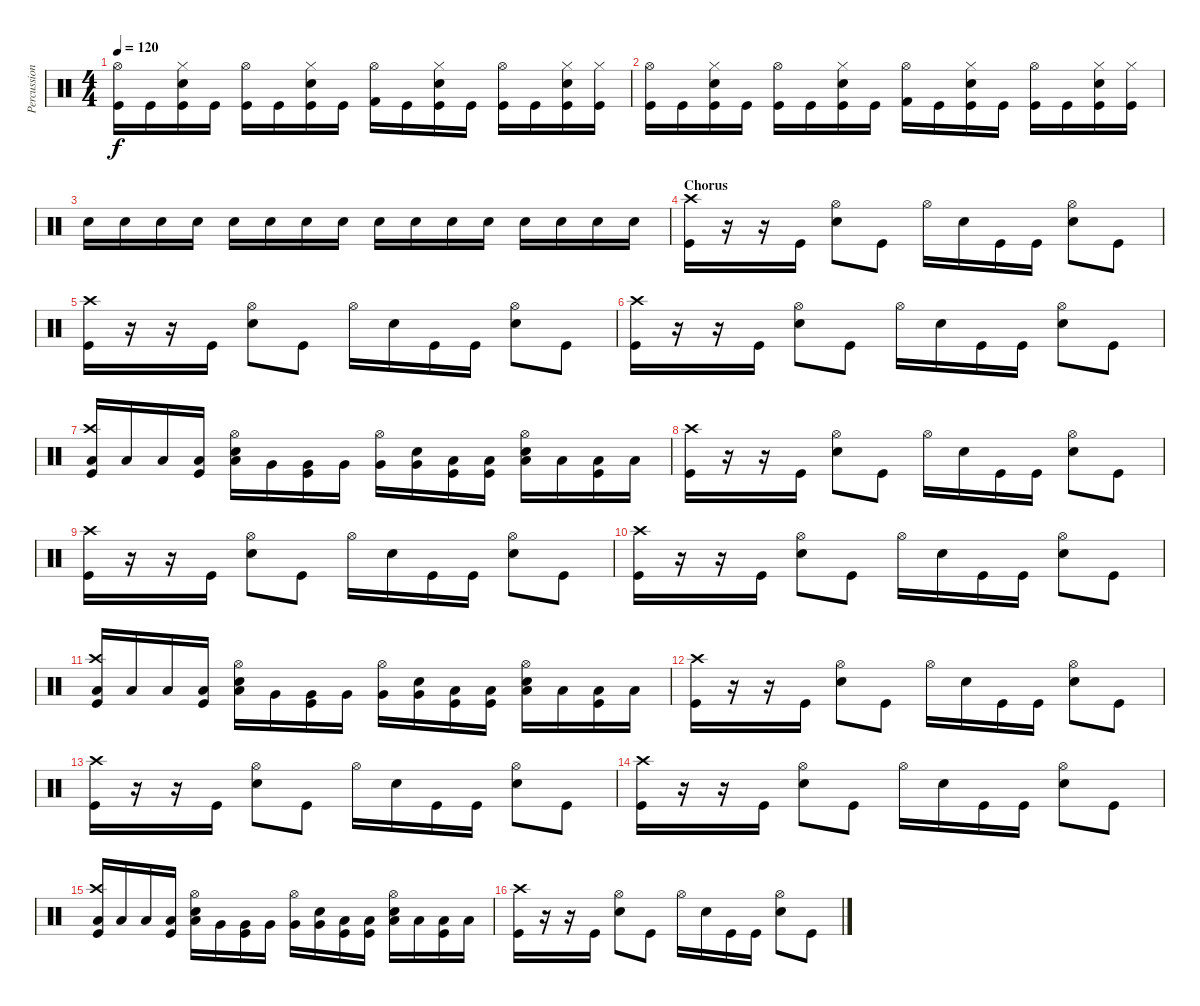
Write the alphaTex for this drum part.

\track ("Percussion" "Percussion") {instrument percussion}
\staff {score}
\articulation defaults
\ts (4 4)
\tempo 120
\clef neutral
\ks c
("Kick (hit)" "Hi-Hat (open)").16{dy f} "Kick (hit)".16 ("Kick (hit)" "Electric Snare (hit)" "Hi-Hat (closed)").16 "Kick (hit)".16 ("Kick (hit)" "Hi-Hat (open)").16 "Kick (hit)".16 ("Kick (hit)" "Electric Snare (hit)" "Hi-Hat (closed)").16 "Kick (hit)".16 ("Kick (hit) 2" "Hi-Hat (open)").16 "Kick (hit)".16 ("Kick (hit)" "Electric Snare (hit)" "Hi-Hat (closed)").16 "Kick (hit)".16 ("Kick (hit)" "Hi-Hat (open)").16 "Kick (hit)".16 ("Kick (hit)" "Electric Snare (hit)" "Hi-Hat (closed)").16 ("Kick (hit)" "Hi-Hat (closed)").16 |
("Kick (hit)" "Hi-Hat (open)").16 "Kick (hit)".16 ("Kick (hit)" "Electric Snare (hit)" "Hi-Hat (closed)").16 "Kick (hit)".16 ("Kick (hit)" "Hi-Hat (open)").16 "Kick (hit)".16 ("Kick (hit)" "Electric Snare (hit)" "Hi-Hat (closed)").16 "Kick (hit)".16 ("Kick (hit) 2" "Hi-Hat (open)").16 "Kick (hit)".16 ("Kick (hit)" "Electric Snare (hit)" "Hi-Hat (closed)").16 "Kick (hit)".16 ("Kick (hit)" "Hi-Hat (open)").16 "Kick (hit)".16 ("Kick (hit)" "Electric Snare (hit)" "Hi-Hat (closed)").16 ("Kick (hit)" "Hi-Hat (closed)").16 |
"Electric Snare (hit)".16 "Electric Snare (hit)".16 "Electric Snare (hit)".16 "Electric Snare (hit)".16 "Electric Snare (hit)".16 "Electric Snare (hit)".16 "Electric Snare (hit)".16 "Electric Snare (hit)".16 "Electric Snare (hit)".16 "Electric Snare (hit)".16 "Electric Snare (hit)".16 "Electric Snare (hit)".16 "Electric Snare (hit)".16 "Electric Snare (hit)".16 "Electric Snare (hit)".16 "Electric Snare (hit)".16 |
\section ("" "Chorus")
("Crash high (hit)" "Kick (hit)").16 r.16 r.16 "Kick (hit)".16 ("Hi-Hat (open)" "Electric Snare (hit)").8 "Kick (hit)".8 "Hi-Hat (open)".16 "Electric Snare (hit)".16 "Kick (hit)".16 "Kick (hit)".16 ("Hi-Hat (open)" "Electric Snare (hit)").8 "Kick (hit)".8 |
("Crash high (hit)" "Kick (hit)").16 r.16 r.16 "Kick (hit)".16 ("Hi-Hat (open)" "Electric Snare (hit)").8 "Kick (hit)".8 "Hi-Hat (open)".16 "Electric Snare (hit)".16 "Kick (hit)".16 "Kick (hit)".16 ("Hi-Hat (open)" "Electric Snare (hit)").8 "Kick (hit)".8 |
("Crash high (hit)" "Kick (hit)").16 r.16 r.16 "Kick (hit)".16 ("Hi-Hat (open)" "Electric Snare (hit)").8 "Kick (hit)".8 "Hi-Hat (open)".16 "Electric Snare (hit)".16 "Kick (hit)".16 "Kick (hit)".16 ("Hi-Hat (open)" "Electric Snare (hit)").8 "Kick (hit)".8 |
("Crash high (hit)" "Low Tom (hit)" "Kick (hit)").16 "Low Tom (hit)".16 "Low Tom (hit)".16 ("Low Tom (hit)" "Kick (hit)").16 ("Hi-Hat (open)" "Low Tom (hit)" "Electric Snare (hit)").16 "Very Low Tom (hit)".16 ("Very Low Tom (hit)" "Kick (hit)").16 "Very Low Tom (hit)".16 ("Hi-Hat (open)" "Very Low Tom (hit)").16 ("Very Low Tom (hit)" "Electric Snare (hit)").16 ("Low Floor Tom (hit)" "Kick (hit)").16 ("Low Floor Tom (hit)" "Kick (hit)").16 ("Hi-Hat (open)" "Low Floor Tom (hit)" "Electric Snare (hit)").16 "Low Floor Tom (hit)".16 ("Low Floor Tom (hit)" "Kick (hit)").16 "Low Floor Tom (hit)".16 |
("Crash high (hit)" "Kick (hit)").16 r.16 r.16 "Kick (hit)".16 ("Hi-Hat (open)" "Electric Snare (hit)").8 "Kick (hit)".8 "Hi-Hat (open)".16 "Electric Snare (hit)".16 "Kick (hit)".16 "Kick (hit)".16 ("Hi-Hat (open)" "Electric Snare (hit)").8 "Kick (hit)".8 |
("Crash high (hit)" "Kick (hit)").16 r.16 r.16 "Kick (hit)".16 ("Hi-Hat (open)" "Electric Snare (hit)").8 "Kick (hit)".8 "Hi-Hat (open)".16 "Electric Snare (hit)".16 "Kick (hit)".16 "Kick (hit)".16 ("Hi-Hat (open)" "Electric Snare (hit)").8 "Kick (hit)".8 |
("Crash high (hit)" "Kick (hit)").16 r.16 r.16 "Kick (hit)".16 ("Hi-Hat (open)" "Electric Snare (hit)").8 "Kick (hit)".8 "Hi-Hat (open)".16 "Electric Snare (hit)".16 "Kick (hit)".16 "Kick (hit)".16 ("Hi-Hat (open)" "Electric Snare (hit)").8 "Kick (hit)".8 |
("Crash high (hit)" "Low Tom (hit)" "Kick (hit)").16 "Low Tom (hit)".16 "Low Tom (hit)".16 ("Low Tom (hit)" "Kick (hit)").16 ("Hi-Hat (open)" "Low Tom (hit)" "Electric Snare (hit)").16 "Very Low Tom (hit)".16 ("Very Low Tom (hit)" "Kick (hit)").16 "Very Low Tom (hit)".16 ("Hi-Hat (open)" "Very Low Tom (hit)").16 ("Very Low Tom (hit)" "Electric Snare (hit)").16 ("Low Floor Tom (hit)" "Kick (hit)").16 ("Low Floor Tom (hit)" "Kick (hit)").16 ("Hi-Hat (open)" "Low Floor Tom (hit)" "Electric Snare (hit)").16 "Low Floor Tom (hit)".16 ("Low Floor Tom (hit)" "Kick (hit)").16 "Low Floor Tom (hit)".16 |
("Crash high (hit)" "Kick (hit)").16 r.16 r.16 "Kick (hit)".16 ("Hi-Hat (open)" "Electric Snare (hit)").8 "Kick (hit)".8 "Hi-Hat (open)".16 "Electric Snare (hit)".16 "Kick (hit)".16 "Kick (hit)".16 ("Hi-Hat (open)" "Electric Snare (hit)").8 "Kick (hit)".8 |
("Crash high (hit)" "Kick (hit)").16 r.16 r.16 "Kick (hit)".16 ("Hi-Hat (open)" "Electric Snare (hit)").8 "Kick (hit)".8 "Hi-Hat (open)".16 "Electric Snare (hit)".16 "Kick (hit)".16 "Kick (hit)".16 ("Hi-Hat (open)" "Electric Snare (hit)").8 "Kick (hit)".8 |
("Crash high (hit)" "Kick (hit)").16 r.16 r.16 "Kick (hit)".16 ("Hi-Hat (open)" "Electric Snare (hit)").8 "Kick (hit)".8 "Hi-Hat (open)".16 "Electric Snare (hit)".16 "Kick (hit)".16 "Kick (hit)".16 ("Hi-Hat (open)" "Electric Snare (hit)").8 "Kick (hit)".8 |
("Crash high (hit)" "Low Tom (hit)" "Kick (hit)").16 "Low Tom (hit)".16 "Low Tom (hit)".16 ("Low Tom (hit)" "Kick (hit)").16 ("Hi-Hat (open)" "Low Tom (hit)" "Electric Snare (hit)").16 "Very Low Tom (hit)".16 ("Very Low Tom (hit)" "Kick (hit)").16 "Very Low Tom (hit)".16 ("Hi-Hat (open)" "Very Low Tom (hit)").16 ("Very Low Tom (hit)" "Electric Snare (hit)").16 ("Low Floor Tom (hit)" "Kick (hit)").16 ("Low Floor Tom (hit)" "Kick (hit)").16 ("Hi-Hat (open)" "Low Floor Tom (hit)" "Electric Snare (hit)").16 "Low Floor Tom (hit)".16 ("Low Floor Tom (hit)" "Kick (hit)").16 "Low Floor Tom (hit)".16 |
("Crash high (hit)" "Kick (hit)").16 r.16 r.16 "Kick (hit)".16 ("Hi-Hat (open)" "Electric Snare (hit)").8 "Kick (hit)".8 "Hi-Hat (open)".16 "Electric Snare (hit)".16 "Kick (hit)".16 "Kick (hit)".16 ("Hi-Hat (open)" "Electric Snare (hit)").8 "Kick (hit)".8
